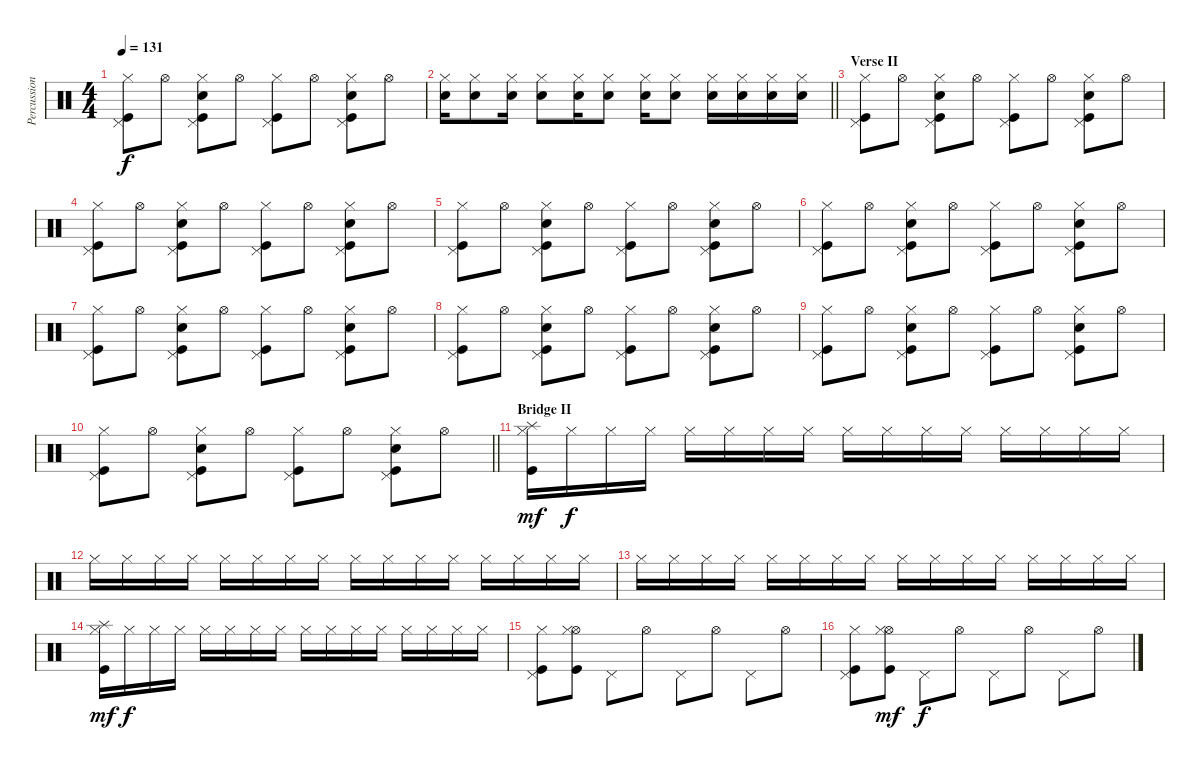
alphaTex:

\track ("Percussion II" "Percussion") {instrument percussion}
\staff {score}
\articulation defaults
\ts (4 4)
\tempo 131
\clef neutral
\ks c
("Pedal Hi-Hat (hit)" "Hi-Hat (closed)" "Kick (hit)").8{dy f} "Hi-Hat (open)".8 ("Pedal Hi-Hat (hit)" "Hand Clap (hit)" "Hi-Hat (closed)" "Kick (hit)").8 "Hi-Hat (open)".8 ("Pedal Hi-Hat (hit)" "Hi-Hat (closed)" "Kick (hit)").8 "Hi-Hat (open)".8 ("Pedal Hi-Hat (hit)" "Hand Clap (hit)" "Hi-Hat (closed)" "Kick (hit)").8 "Hi-Hat (open)".8 |
\barLineRight lightlight
("Electric Snare (hit)" "Hi-Hat (closed)").16 ("Electric Snare (hit)" "Hi-Hat (closed)").8 ("Electric Snare (hit)" "Hi-Hat (closed)").16 ("Electric Snare (hit)" "Hi-Hat (closed)").8 ("Electric Snare (hit)" "Hi-Hat (closed)").16 ("Electric Snare (hit)" "Hi-Hat (closed)").8 ("Electric Snare (hit)" "Hi-Hat (closed)").16 ("Electric Snare (hit)" "Hi-Hat (closed)").8 ("Electric Snare (hit)" "Hi-Hat (closed)").16 ("Electric Snare (hit)" "Hi-Hat (closed)").16 ("Electric Snare (hit)" "Hi-Hat (closed)").16 ("Electric Snare (hit)" "Hi-Hat (closed)").16 |
\section ("" "Verse II")
("Pedal Hi-Hat (hit)" "Hi-Hat (closed)" "Kick (hit)").8 "Hi-Hat (open)".8 ("Pedal Hi-Hat (hit)" "Hand Clap (hit)" "Hi-Hat (closed)" "Kick (hit)").8 "Hi-Hat (open)".8 ("Pedal Hi-Hat (hit)" "Hi-Hat (closed)" "Kick (hit)").8 "Hi-Hat (open)".8 ("Pedal Hi-Hat (hit)" "Hand Clap (hit)" "Hi-Hat (closed)" "Kick (hit)").8 "Hi-Hat (open)".8 |
("Pedal Hi-Hat (hit)" "Hi-Hat (closed)" "Kick (hit)").8 "Hi-Hat (open)".8 ("Pedal Hi-Hat (hit)" "Hand Clap (hit)" "Hi-Hat (closed)" "Kick (hit)").8 "Hi-Hat (open)".8 ("Pedal Hi-Hat (hit)" "Hi-Hat (closed)" "Kick (hit)").8 "Hi-Hat (open)".8 ("Pedal Hi-Hat (hit)" "Hand Clap (hit)" "Hi-Hat (closed)" "Kick (hit)").8 "Hi-Hat (open)".8 |
("Pedal Hi-Hat (hit)" "Hi-Hat (closed)" "Kick (hit)").8 "Hi-Hat (open)".8 ("Pedal Hi-Hat (hit)" "Hand Clap (hit)" "Hi-Hat (closed)" "Kick (hit)").8 "Hi-Hat (open)".8 ("Pedal Hi-Hat (hit)" "Hi-Hat (closed)" "Kick (hit)").8 "Hi-Hat (open)".8 ("Pedal Hi-Hat (hit)" "Hand Clap (hit)" "Hi-Hat (closed)" "Kick (hit)").8 "Hi-Hat (open)".8 |
("Pedal Hi-Hat (hit)" "Hi-Hat (closed)" "Kick (hit)").8 "Hi-Hat (open)".8 ("Pedal Hi-Hat (hit)" "Hand Clap (hit)" "Hi-Hat (closed)" "Kick (hit)").8 "Hi-Hat (open)".8 ("Pedal Hi-Hat (hit)" "Hi-Hat (closed)" "Kick (hit)").8 "Hi-Hat (open)".8 ("Pedal Hi-Hat (hit)" "Hand Clap (hit)" "Hi-Hat (closed)" "Kick (hit)").8 "Hi-Hat (open)".8 |
("Pedal Hi-Hat (hit)" "Hi-Hat (closed)" "Kick (hit)").8 "Hi-Hat (open)".8 ("Pedal Hi-Hat (hit)" "Hand Clap (hit)" "Hi-Hat (closed)" "Kick (hit)").8 "Hi-Hat (open)".8 ("Pedal Hi-Hat (hit)" "Hi-Hat (closed)" "Kick (hit)").8 "Hi-Hat (open)".8 ("Pedal Hi-Hat (hit)" "Hand Clap (hit)" "Hi-Hat (closed)" "Kick (hit)").8 "Hi-Hat (open)".8 |
("Pedal Hi-Hat (hit)" "Hi-Hat (closed)" "Kick (hit)").8 "Hi-Hat (open)".8 ("Pedal Hi-Hat (hit)" "Hand Clap (hit)" "Hi-Hat (closed)" "Kick (hit)").8 "Hi-Hat (open)".8 ("Pedal Hi-Hat (hit)" "Hi-Hat (closed)" "Kick (hit)").8 "Hi-Hat (open)".8 ("Pedal Hi-Hat (hit)" "Hand Clap (hit)" "Hi-Hat (closed)" "Kick (hit)").8 "Hi-Hat (open)".8 |
("Pedal Hi-Hat (hit)" "Hi-Hat (closed)" "Kick (hit)").8 "Hi-Hat (open)".8 ("Pedal Hi-Hat (hit)" "Hand Clap (hit)" "Hi-Hat (closed)" "Kick (hit)").8 "Hi-Hat (open)".8 ("Pedal Hi-Hat (hit)" "Hi-Hat (closed)" "Kick (hit)").8 "Hi-Hat (open)".8 ("Pedal Hi-Hat (hit)" "Hand Clap (hit)" "Hi-Hat (closed)" "Kick (hit)").8 "Hi-Hat (open)".8 |
\barLineRight lightlight
("Pedal Hi-Hat (hit)" "Hi-Hat (closed)" "Kick (hit)").8 "Hi-Hat (open)".8 ("Pedal Hi-Hat (hit)" "Hand Clap (hit)" "Hi-Hat (closed)" "Kick (hit)").8 "Hi-Hat (open)".8 ("Pedal Hi-Hat (hit)" "Hi-Hat (closed)" "Kick (hit)").8 "Hi-Hat (open)".8 ("Pedal Hi-Hat (hit)" "Hand Clap (hit)" "Hi-Hat (closed)" "Kick (hit)").8 "Hi-Hat (open)".8 |
\section ("" "Bridge II")
("Splash (hit)" "Hi-Hat (closed)" "Kick (hit)").16{dy mf} "Hi-Hat (closed)".16{dy f} "Hi-Hat (closed)".16 "Hi-Hat (closed)".16 "Hi-Hat (closed)".16 "Hi-Hat (closed)".16 "Hi-Hat (closed)".16 "Hi-Hat (closed)".16 "Hi-Hat (closed)".16 "Hi-Hat (closed)".16 "Hi-Hat (closed)".16 "Hi-Hat (closed)".16 "Hi-Hat (closed)".16 "Hi-Hat (closed)".16 "Hi-Hat (closed)".16 "Hi-Hat (closed)".16 |
"Hi-Hat (closed)".16 "Hi-Hat (closed)".16 "Hi-Hat (closed)".16 "Hi-Hat (closed)".16 "Hi-Hat (closed)".16 "Hi-Hat (closed)".16 "Hi-Hat (closed)".16 "Hi-Hat (closed)".16 "Hi-Hat (closed)".16 "Hi-Hat (closed)".16 "Hi-Hat (closed)".16 "Hi-Hat (closed)".16 "Hi-Hat (closed)".16 "Hi-Hat (closed)".16 "Hi-Hat (closed)".16 "Hi-Hat (closed)".16 |
"Hi-Hat (closed)".16 "Hi-Hat (closed)".16 "Hi-Hat (closed)".16 "Hi-Hat (closed)".16 "Hi-Hat (closed)".16 "Hi-Hat (closed)".16 "Hi-Hat (closed)".16 "Hi-Hat (closed)".16 "Hi-Hat (closed)".16 "Hi-Hat (closed)".16 "Hi-Hat (closed)".16 "Hi-Hat (closed)".16 "Hi-Hat (closed)".16 "Hi-Hat (closed)".16 "Hi-Hat (closed)".16 "Hi-Hat (closed)".16 |
("Splash (hit)" "Hi-Hat (closed)" "Kick (hit)").16{dy mf} "Hi-Hat (closed)".16{dy f} "Hi-Hat (closed)".16 "Hi-Hat (closed)".16 "Hi-Hat (closed)".16 "Hi-Hat (closed)".16 "Hi-Hat (closed)".16 "Hi-Hat (closed)".16 "Hi-Hat (closed)".16 "Hi-Hat (closed)".16 "Hi-Hat (closed)".16 "Hi-Hat (closed)".16 "Hi-Hat (closed)".16 "Hi-Hat (closed)".16 "Hi-Hat (closed)".16 "Hi-Hat (closed)".16 |
("Pedal Hi-Hat (hit)" "Hi-Hat (closed)" "Kick (hit)").8 ("Hi-Hat (open)" "Hi-Hat (closed)" "Kick (hit)").8 "Pedal Hi-Hat (hit)".8 "Hi-Hat (open)".8 "Pedal Hi-Hat (hit)".8 "Hi-Hat (open)".8 "Pedal Hi-Hat (hit)".8 "Hi-Hat (open)".8 |
("Pedal Hi-Hat (hit)" "Hi-Hat (closed)" "Kick (hit)").8 ("Hi-Hat (open)" "Hi-Hat (closed)" "Kick (hit)").8{dy mf} "Pedal Hi-Hat (hit)".8{dy f} "Hi-Hat (open)".8 "Pedal Hi-Hat (hit)".8 "Hi-Hat (open)".8 "Pedal Hi-Hat (hit)".8 "Hi-Hat (open)".8
